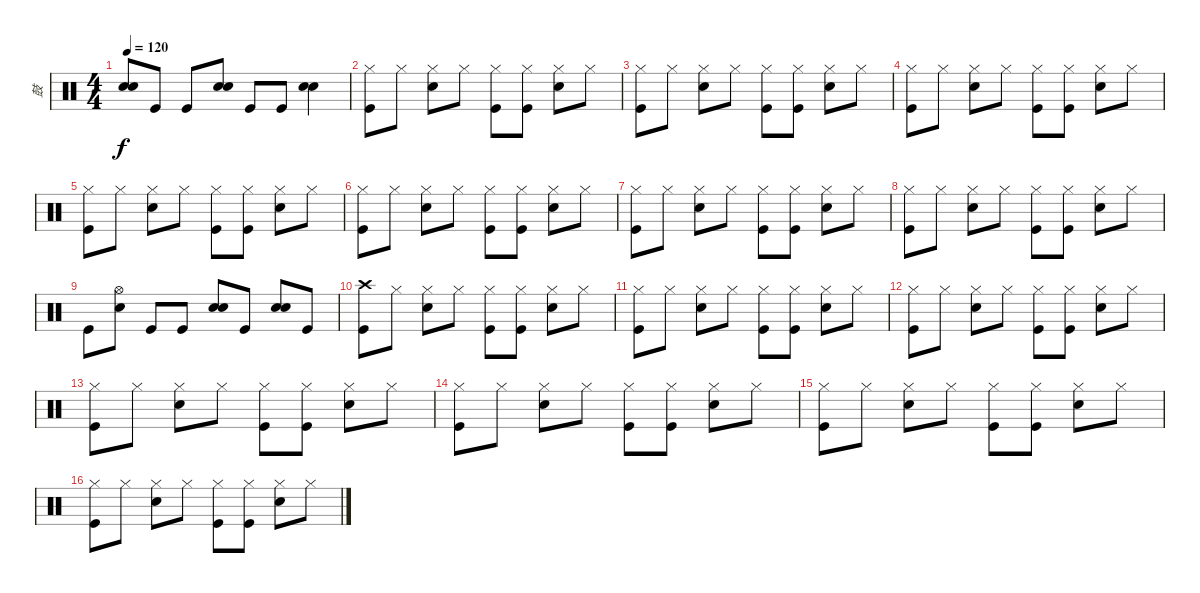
\track ("鼓" "鼓") {instrument percussion}
\staff {score}
\articulation defaults
\ts (4 4)
\tempo 120
\clef neutral
\ks c
("Electric Snare (hit)" "Electric Snare (hit)").8{dy f} "Kick (hit)".8 "Kick (hit)".8 ("Electric Snare (hit)" "Electric Snare (hit)").8 "Kick (hit)".8 "Kick (hit)".8 ("Electric Snare (hit)" "Electric Snare (hit)").4 |
("Hi-Hat (closed)" "Kick (hit)").8 "Hi-Hat (closed)".8 ("Hi-Hat (closed)" "Electric Snare (hit)").8 "Hi-Hat (closed)".8 ("Hi-Hat (closed)" "Kick (hit)").8 ("Hi-Hat (closed)" "Kick (hit)").8 ("Hi-Hat (closed)" "Electric Snare (hit)").8 "Hi-Hat (closed)".8 |
("Hi-Hat (closed)" "Kick (hit)").8 "Hi-Hat (closed)".8 ("Hi-Hat (closed)" "Electric Snare (hit)").8 "Hi-Hat (closed)".8 ("Hi-Hat (closed)" "Kick (hit)").8 ("Hi-Hat (closed)" "Kick (hit)").8 ("Hi-Hat (closed)" "Electric Snare (hit)").8 "Hi-Hat (closed)".8 |
("Hi-Hat (closed)" "Kick (hit)").8 "Hi-Hat (closed)".8 ("Hi-Hat (closed)" "Electric Snare (hit)").8 "Hi-Hat (closed)".8 ("Hi-Hat (closed)" "Kick (hit)").8 ("Hi-Hat (closed)" "Kick (hit)").8 ("Hi-Hat (closed)" "Electric Snare (hit)").8 "Hi-Hat (closed)".8 |
("Hi-Hat (closed)" "Kick (hit)").8 "Hi-Hat (closed)".8 ("Hi-Hat (closed)" "Electric Snare (hit)").8 "Hi-Hat (closed)".8 ("Hi-Hat (closed)" "Kick (hit)").8 ("Hi-Hat (closed)" "Kick (hit)").8 ("Hi-Hat (closed)" "Electric Snare (hit)").8 "Hi-Hat (closed)".8 |
("Hi-Hat (closed)" "Kick (hit)").8 "Hi-Hat (closed)".8 ("Hi-Hat (closed)" "Electric Snare (hit)").8 "Hi-Hat (closed)".8 ("Hi-Hat (closed)" "Kick (hit)").8 ("Hi-Hat (closed)" "Kick (hit)").8 ("Hi-Hat (closed)" "Electric Snare (hit)").8 "Hi-Hat (closed)".8 |
("Hi-Hat (closed)" "Kick (hit)").8 "Hi-Hat (closed)".8 ("Hi-Hat (closed)" "Electric Snare (hit)").8 "Hi-Hat (closed)".8 ("Hi-Hat (closed)" "Kick (hit)").8 ("Hi-Hat (closed)" "Kick (hit)").8 ("Hi-Hat (closed)" "Electric Snare (hit)").8 "Hi-Hat (closed)".8 |
("Hi-Hat (closed)" "Kick (hit)").8 "Hi-Hat (closed)".8 ("Hi-Hat (closed)" "Electric Snare (hit)").8 "Hi-Hat (closed)".8 ("Hi-Hat (closed)" "Kick (hit)").8 ("Hi-Hat (closed)" "Kick (hit)").8 ("Hi-Hat (closed)" "Electric Snare (hit)").8 "Hi-Hat (closed)".8 |
"Kick (hit)".8 ("Hi-Hat (open)" "Electric Snare (hit)").8 "Kick (hit)".8 "Kick (hit)".8 ("Electric Snare (hit)" "Electric Snare (hit)").8 "Kick (hit)".8 ("Electric Snare (hit)" "Electric Snare (hit)").8 "Kick (hit)".8 |
("Crash high (hit)" "Kick (hit)").8 "Hi-Hat (closed)".8 ("Hi-Hat (closed)" "Electric Snare (hit)").8 "Hi-Hat (closed)".8 ("Hi-Hat (closed)" "Kick (hit)").8 ("Hi-Hat (closed)" "Kick (hit)").8 ("Hi-Hat (closed)" "Electric Snare (hit)").8 "Hi-Hat (closed)".8 |
("Hi-Hat (closed)" "Kick (hit)").8 "Hi-Hat (closed)".8 ("Hi-Hat (closed)" "Electric Snare (hit)").8 "Hi-Hat (closed)".8 ("Hi-Hat (closed)" "Kick (hit)").8 ("Hi-Hat (closed)" "Kick (hit)").8 ("Hi-Hat (closed)" "Electric Snare (hit)").8 "Hi-Hat (closed)".8 |
("Hi-Hat (closed)" "Kick (hit)").8 "Hi-Hat (closed)".8 ("Hi-Hat (closed)" "Electric Snare (hit)").8 "Hi-Hat (closed)".8 ("Hi-Hat (closed)" "Kick (hit)").8 ("Hi-Hat (closed)" "Kick (hit)").8 ("Hi-Hat (closed)" "Electric Snare (hit)").8 "Hi-Hat (closed)".8 |
("Hi-Hat (closed)" "Kick (hit)").8 "Hi-Hat (closed)".8 ("Hi-Hat (closed)" "Electric Snare (hit)").8 "Hi-Hat (closed)".8 ("Hi-Hat (closed)" "Kick (hit)").8 ("Hi-Hat (closed)" "Kick (hit)").8 ("Hi-Hat (closed)" "Electric Snare (hit)").8 "Hi-Hat (closed)".8 |
("Hi-Hat (closed)" "Kick (hit)").8 "Hi-Hat (closed)".8 ("Hi-Hat (closed)" "Electric Snare (hit)").8 "Hi-Hat (closed)".8 ("Hi-Hat (closed)" "Kick (hit)").8 ("Hi-Hat (closed)" "Kick (hit)").8 ("Hi-Hat (closed)" "Electric Snare (hit)").8 "Hi-Hat (closed)".8 |
("Hi-Hat (closed)" "Kick (hit)").8 "Hi-Hat (closed)".8 ("Hi-Hat (closed)" "Electric Snare (hit)").8 "Hi-Hat (closed)".8 ("Hi-Hat (closed)" "Kick (hit)").8 ("Hi-Hat (closed)" "Kick (hit)").8 ("Hi-Hat (closed)" "Electric Snare (hit)").8 "Hi-Hat (closed)".8 |
("Hi-Hat (closed)" "Kick (hit)").8 "Hi-Hat (closed)".8 ("Hi-Hat (closed)" "Electric Snare (hit)").8 "Hi-Hat (closed)".8 ("Hi-Hat (closed)" "Kick (hit)").8 ("Hi-Hat (closed)" "Kick (hit)").8 ("Hi-Hat (closed)" "Electric Snare (hit)").8 "Hi-Hat (closed)".8
